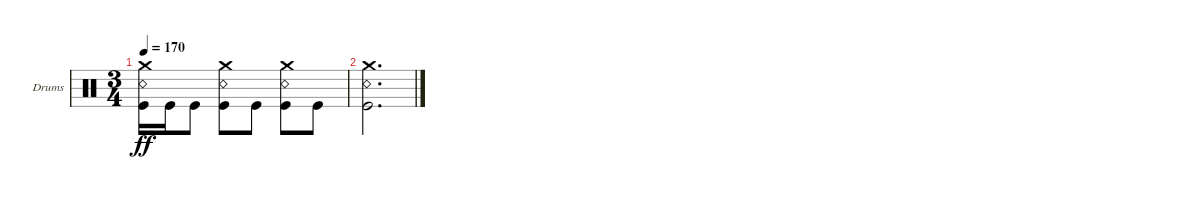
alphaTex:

\bracketExtendMode groupsimilarinstruments
\firstSystemTrackNameOrientation horizontal
\otherSystemsTrackNameOrientation horizontal
\track ("Kaleb - Drums" "Drums") {instrument percussion}
\staff {score}
\articulation defaults
\ts (3 4)
\tempo 170
\clef neutral
\ks c
("Kick (hit)" "Snare (rim shot)" "Crash medium (hit)").16{dy ff} "Kick (hit)".16 "Kick (hit)".8 ("Kick (hit)" "Snare (rim shot)" "Crash medium (hit)").8 "Kick (hit)".8 ("Kick (hit)" "Snare (rim shot)" "Crash medium (hit)").8 "Kick (hit)".8 |
("Crash medium (hit)" "Kick (hit)" "Snare (rim shot)").2{d}
